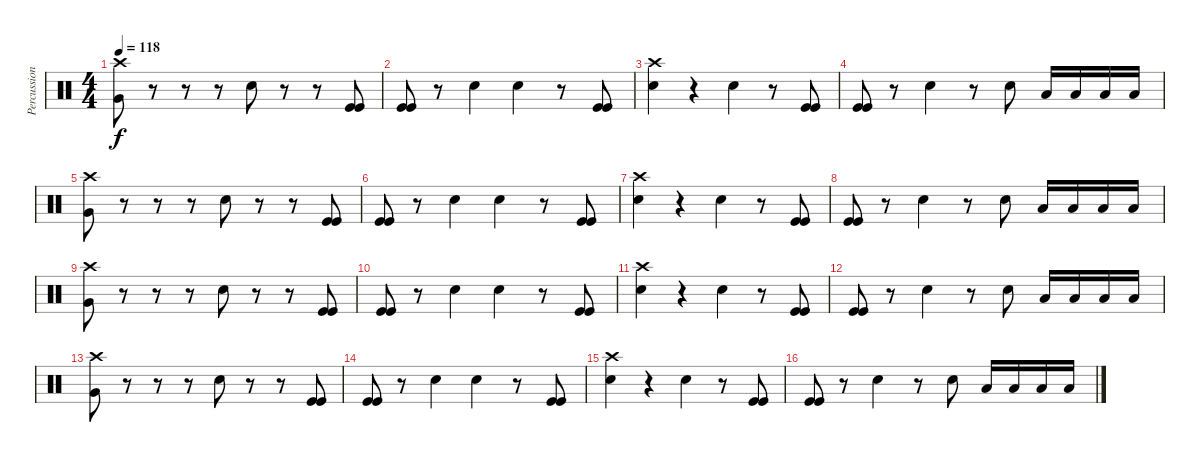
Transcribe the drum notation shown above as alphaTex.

\track ("Percussion" "Percussion") {instrument percussion}
\staff {score}
\articulation defaults
\ts (4 4)
\tempo 118
\clef neutral
\ks c
("Crash high (hit)" "Very Low Tom (hit)").8{dy f} r.8 r.8 r.8 "Electric Snare (hit)".8 r.8 r.8 ("Kick (hit)" "Kick (hit)").8 |
("Kick (hit)" "Kick (hit)").8 r.8 "Electric Snare (hit)".4 "Electric Snare (hit)".4 r.8 ("Kick (hit)" "Kick (hit)").8 |
("Crash high (hit)" "Electric Snare (hit)").4 r.4 "Electric Snare (hit)".4 r.8 ("Kick (hit)" "Kick (hit)").8 |
("Kick (hit)" "Kick (hit)").8 r.8 "Electric Snare (hit)".4 r.8 "Electric Snare (hit)".8 "Low Tom (hit)".16 "Low Floor Tom (hit)".16 "Low Tom (hit)".16 "Low Floor Tom (hit)".16 |
("Crash high (hit)" "Very Low Tom (hit)").8 r.8 r.8 r.8 "Electric Snare (hit)".8 r.8 r.8 ("Kick (hit)" "Kick (hit)").8 |
("Kick (hit)" "Kick (hit)").8 r.8 "Electric Snare (hit)".4 "Electric Snare (hit)".4 r.8 ("Kick (hit)" "Kick (hit)").8 |
("Crash high (hit)" "Electric Snare (hit)").4 r.4 "Electric Snare (hit)".4 r.8 ("Kick (hit)" "Kick (hit)").8 |
("Kick (hit)" "Kick (hit)").8 r.8 "Electric Snare (hit)".4 r.8 "Electric Snare (hit)".8 "Low Tom (hit)".16 "Low Floor Tom (hit)".16 "Low Tom (hit)".16 "Low Floor Tom (hit)".16 |
("Crash high (hit)" "Very Low Tom (hit)").8 r.8 r.8 r.8 "Electric Snare (hit)".8 r.8 r.8 ("Kick (hit)" "Kick (hit)").8 |
("Kick (hit)" "Kick (hit)").8 r.8 "Electric Snare (hit)".4 "Electric Snare (hit)".4 r.8 ("Kick (hit)" "Kick (hit)").8 |
("Crash high (hit)" "Electric Snare (hit)").4 r.4 "Electric Snare (hit)".4 r.8 ("Kick (hit)" "Kick (hit)").8 |
("Kick (hit)" "Kick (hit)").8 r.8 "Electric Snare (hit)".4 r.8 "Electric Snare (hit)".8 "Low Tom (hit)".16 "Low Floor Tom (hit)".16 "Low Tom (hit)".16 "Low Floor Tom (hit)".16 |
("Crash high (hit)" "Very Low Tom (hit)").8 r.8 r.8 r.8 "Electric Snare (hit)".8 r.8 r.8 ("Kick (hit)" "Kick (hit)").8 |
("Kick (hit)" "Kick (hit)").8 r.8 "Electric Snare (hit)".4 "Electric Snare (hit)".4 r.8 ("Kick (hit)" "Kick (hit)").8 |
("Crash high (hit)" "Electric Snare (hit)").4 r.4 "Electric Snare (hit)".4 r.8 ("Kick (hit)" "Kick (hit)").8 |
("Kick (hit)" "Kick (hit)").8 r.8 "Electric Snare (hit)".4 r.8 "Electric Snare (hit)".8 "Low Tom (hit)".16 "Low Floor Tom (hit)".16 "Low Tom (hit)".16 "Low Floor Tom (hit)".16
